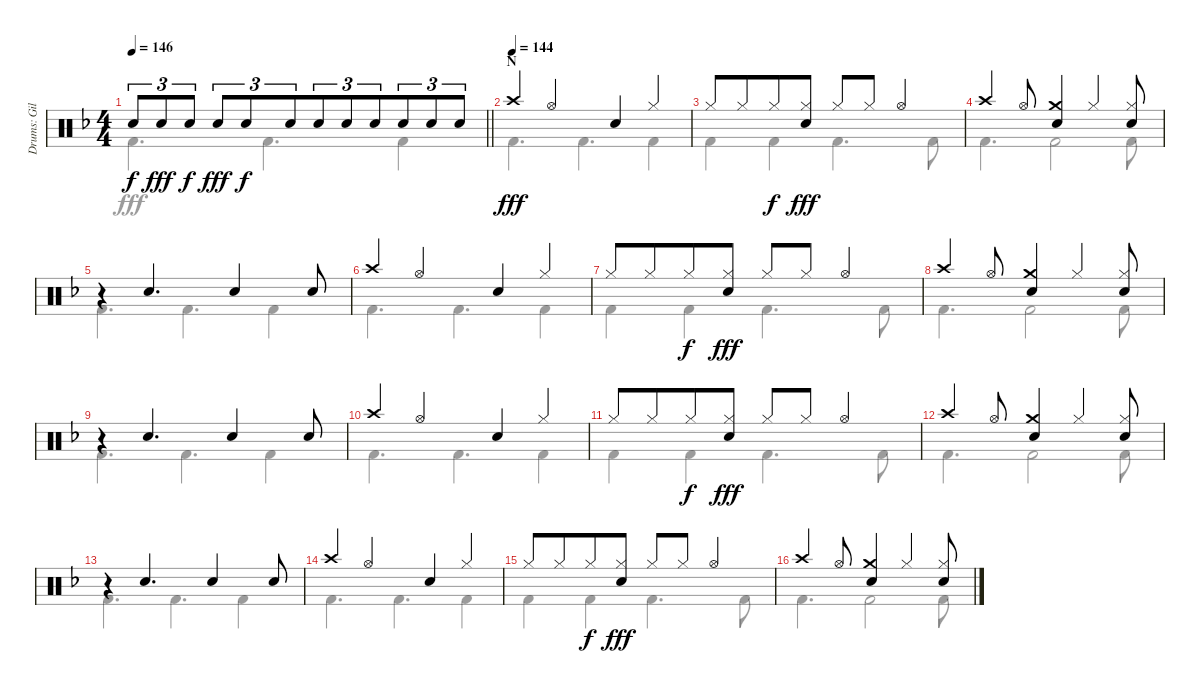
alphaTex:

\track ("Drums: Gil" "Drums: Gil") {instrument percussion}
\staff {score}
\articulation defaults
\voice
\ts (4 4)
\tempo 146
\clef neutral
\barLineRight lightlight
\ks f "Snare (hit) 2".8{tu (3 2) dy f} "Snare (hit) 2".8{tu (3 2) dy fff beam merge} "Snare (hit) 2".8{tu (3 2) dy f} "Snare (hit) 2".8{tu (3 2) dy fff} "Snare (hit) 2".8{tu (3 2) dy f} "Snare (hit) 2".8{tu (3 2) beam merge} "Snare (hit) 2".8{tu (3 2)} "Snare (hit) 2".8{tu (3 2) beam merge} "Snare (hit) 2".8{tu (3 2) beam merge} "Snare (hit) 2".8{tu (3 2)} "Snare (hit) 2".8{tu (3 2)} "Snare (hit) 2".8{tu (3 2)}
|
\section ("" "N")
\tempo (144)
"Crash high (hit)".4{dy fff} "Hi-Hat (open)".4 "Snare (hit) 2".4 "Hi-Hat (closed)".4 |
"Hi-Hat (closed)".8 "Hi-Hat (closed)".8{beam merge} "Hi-Hat (closed)".8{dy f} ("Hi-Hat (closed)" "Snare (hit) 2").8{dy fff} "Hi-Hat (closed)".8 "Hi-Hat (closed)".8 "Hi-Hat (open)".4 |
"Crash high (hit)".4 "Hi-Hat (open)".8 ("Crash medium (hit)" "Snare (hit) 2").4 "Hi-Hat (closed)".4 ("Hi-Hat (closed)" "Snare (hit) 2").8 |
r.4 "Snare (hit) 2".4{d} "Snare (hit) 2".4 "Snare (hit) 2".8 |
"Crash high (hit)".4 "Hi-Hat (open)".4 "Snare (hit) 2".4 "Hi-Hat (closed)".4 |
"Hi-Hat (closed)".8 "Hi-Hat (closed)".8{beam merge} "Hi-Hat (closed)".8{dy f} ("Hi-Hat (closed)" "Snare (hit) 2").8{dy fff} "Hi-Hat (closed)".8 "Hi-Hat (closed)".8 "Hi-Hat (open)".4 |
"Crash high (hit)".4 "Hi-Hat (open)".8 ("Crash medium (hit)" "Snare (hit) 2").4 "Hi-Hat (closed)".4 ("Hi-Hat (closed)" "Snare (hit) 2").8 |
r.4 "Snare (hit) 2".4{d} "Snare (hit) 2".4 "Snare (hit) 2".8 |
"Crash high (hit)".4 "Hi-Hat (open)".4 "Snare (hit) 2".4 "Hi-Hat (closed)".4 |
"Hi-Hat (closed)".8 "Hi-Hat (closed)".8{beam merge} "Hi-Hat (closed)".8{dy f} ("Hi-Hat (closed)" "Snare (hit) 2").8{dy fff} "Hi-Hat (closed)".8 "Hi-Hat (closed)".8 "Hi-Hat (open)".4 |
"Crash high (hit)".4 "Hi-Hat (open)".8 ("Crash medium (hit)" "Snare (hit) 2").4 "Hi-Hat (closed)".4 ("Hi-Hat (closed)" "Snare (hit) 2").8 |
r.4 "Snare (hit) 2".4{d} "Snare (hit) 2".4 "Snare (hit) 2".8 |
"Crash high (hit)".4 "Hi-Hat (open)".4 "Snare (hit) 2".4 "Hi-Hat (closed)".4 |
"Hi-Hat (closed)".8 "Hi-Hat (closed)".8{beam merge} "Hi-Hat (closed)".8{dy f} ("Hi-Hat (closed)" "Snare (hit) 2").8{dy fff} "Hi-Hat (closed)".8 "Hi-Hat (closed)".8 "Hi-Hat (open)".4 |
"Crash high (hit)".4 "Hi-Hat (open)".8 ("Crash medium (hit)" "Snare (hit) 2").4 "Hi-Hat (closed)".4 ("Hi-Hat (closed)" "Snare (hit) 2").8
\voice
\clef neutral
\ottava regular
\simile none
\barLineRight lightlight
\ks f "Kick (hit) 2".4{d dy fff} "Kick (hit) 2".4{d} "Kick (hit) 2".4
|
"Kick (hit) 2".4{d} "Kick (hit) 2".4{d} "Kick (hit) 2".4 |
"Kick (hit) 2".4 "Kick (hit) 2".4 "Kick (hit) 2".4{d} "Kick (hit) 2".8 |
"Kick (hit) 2".4{d} "Kick (hit) 2".2 "Kick (hit) 2".8 |
"Kick (hit) 2".4{d} "Kick (hit) 2".4{d} "Kick (hit) 2".4 |
"Kick (hit) 2".4{d} "Kick (hit) 2".4{d} "Kick (hit) 2".4 |
"Kick (hit) 2".4 "Kick (hit) 2".4 "Kick (hit) 2".4{d} "Kick (hit) 2".8 |
"Kick (hit) 2".4{d} "Kick (hit) 2".2 "Kick (hit) 2".8 |
"Kick (hit) 2".4{d} "Kick (hit) 2".4{d} "Kick (hit) 2".4 |
"Kick (hit) 2".4{d} "Kick (hit) 2".4{d} "Kick (hit) 2".4 |
"Kick (hit) 2".4 "Kick (hit) 2".4 "Kick (hit) 2".4{d} "Kick (hit) 2".8 |
"Kick (hit) 2".4{d} "Kick (hit) 2".2 "Kick (hit) 2".8 |
"Kick (hit) 2".4{d} "Kick (hit) 2".4{d} "Kick (hit) 2".4 |
"Kick (hit) 2".4{d} "Kick (hit) 2".4{d} "Kick (hit) 2".4 |
"Kick (hit) 2".4 "Kick (hit) 2".4 "Kick (hit) 2".4{d} "Kick (hit) 2".8 |
"Kick (hit) 2".4{d} "Kick (hit) 2".2 "Kick (hit) 2".8
